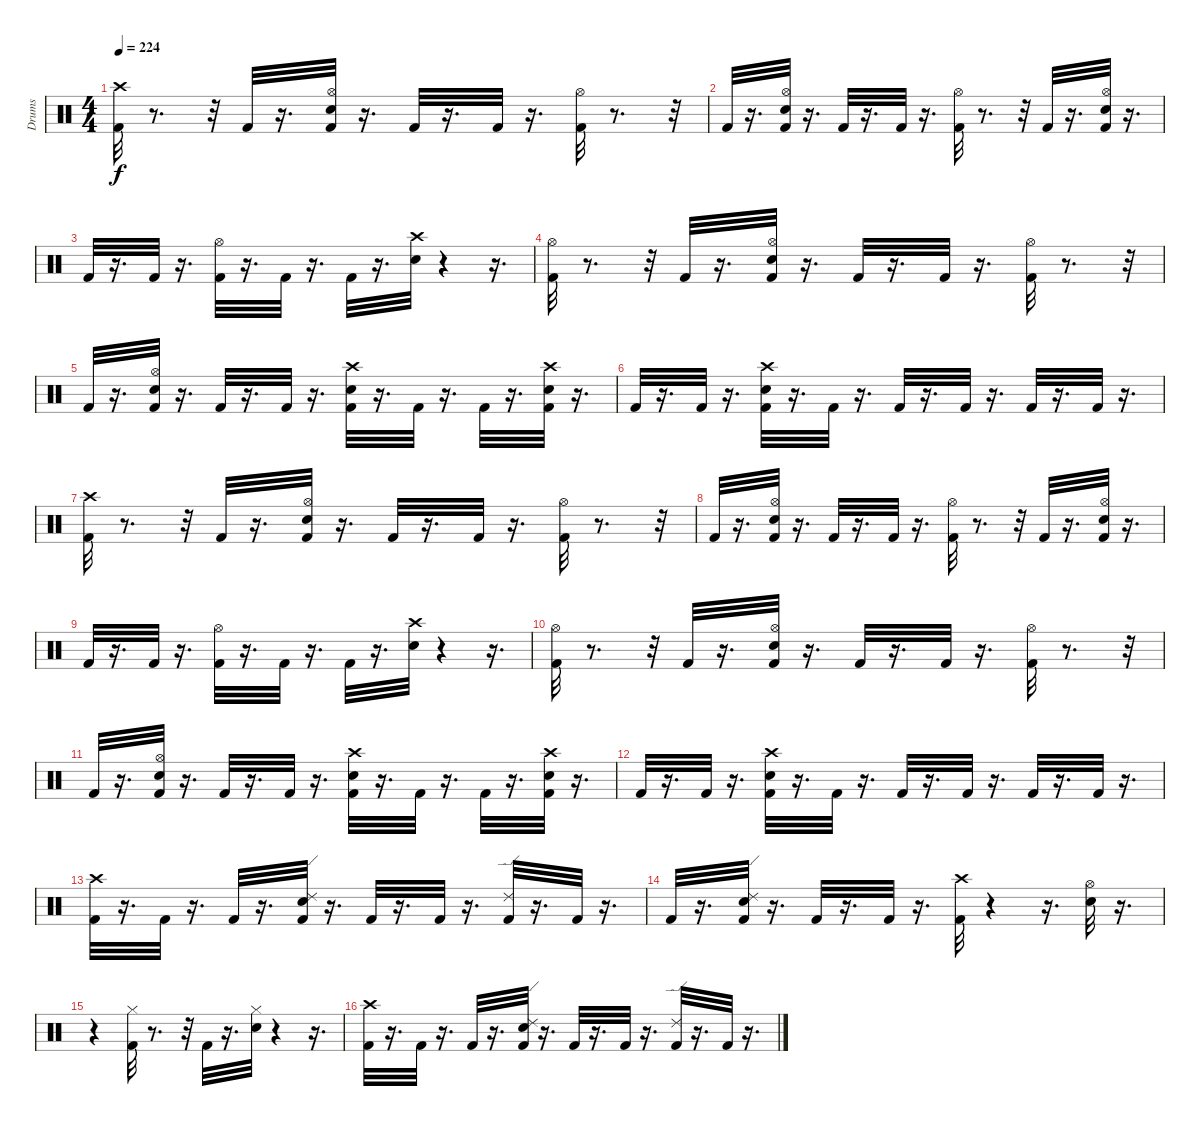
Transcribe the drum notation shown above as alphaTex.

\track ("Drums" "Drums") {instrument percussion}
\staff {score}
\articulation defaults
\ts (4 4)
\tempo 224
\clef neutral
\ks c
("Crash high (hit)" "Kick (hit) 2").32{dy f} r.8{d} r.32 "Kick (hit) 2".32 r.16{d} ("Kick (hit) 2" "Hi-Hat (open)" "Snare (hit) 2").32 r.16{d} "Kick (hit) 2".32 r.16{d} "Kick (hit) 2".32 r.16{d} ("Hi-Hat (open)" "Kick (hit) 2").32 r.8{d} r.32 |
"Kick (hit) 2".32 r.16{d} ("Kick (hit) 2" "Hi-Hat (open)" "Snare (hit) 2").32 r.16{d} "Kick (hit) 2".32 r.16{d} "Kick (hit) 2".32 r.16{d} ("Hi-Hat (open)" "Kick (hit) 2").32 r.8{d} r.32 "Kick (hit) 2".32 r.16{d} ("Kick (hit) 2" "Hi-Hat (open)" "Snare (hit) 2").32 r.16{d} |
"Kick (hit) 2".32 r.16{d} "Kick (hit) 2".32 r.16{d} ("Hi-Hat (open)" "Kick (hit) 2").32 r.16{d} "Kick (hit) 2".32 r.16{d} "Kick (hit) 2".32 r.16{d} ("Crash high (hit)" "Snare (hit) 2").32 r.4 r.16{d} |
("Hi-Hat (open)" "Kick (hit) 2").32 r.8{d} r.32 "Kick (hit) 2".32 r.16{d} ("Kick (hit) 2" "Hi-Hat (open)" "Snare (hit) 2").32 r.16{d} "Kick (hit) 2".32 r.16{d} "Kick (hit) 2".32 r.16{d} ("Hi-Hat (open)" "Kick (hit) 2").32 r.8{d} r.32 |
"Kick (hit) 2".32 r.16{d} ("Kick (hit) 2" "Hi-Hat (open)" "Snare (hit) 2").32 r.16{d} "Kick (hit) 2".32 r.16{d} "Kick (hit) 2".32 r.16{d} ("Kick (hit) 2" "Snare (hit) 2" "Crash high (hit)").32 r.16{d} "Kick (hit) 2".32 r.16{d} "Kick (hit) 2".32 r.16{d} ("Kick (hit) 2" "Snare (hit) 2" "Crash high (hit)").32 r.16{d} |
"Kick (hit) 2".32 r.16{d} "Kick (hit) 2".32 r.16{d} ("Kick (hit) 2" "Snare (hit) 2" "Crash high (hit)").32 r.16{d} "Kick (hit) 2".32 r.16{d} "Kick (hit) 2".32 r.16{d} "Kick (hit) 2".32 r.16{d} "Kick (hit) 2".32 r.16{d} "Kick (hit) 2".32 r.16{d} |
("Crash high (hit)" "Kick (hit) 2").32 r.8{d} r.32 "Kick (hit) 2".32 r.16{d} ("Kick (hit) 2" "Hi-Hat (open)" "Snare (hit) 2").32 r.16{d} "Kick (hit) 2".32 r.16{d} "Kick (hit) 2".32 r.16{d} ("Hi-Hat (open)" "Kick (hit) 2").32 r.8{d} r.32 |
"Kick (hit) 2".32 r.16{d} ("Kick (hit) 2" "Hi-Hat (open)" "Snare (hit) 2").32 r.16{d} "Kick (hit) 2".32 r.16{d} "Kick (hit) 2".32 r.16{d} ("Hi-Hat (open)" "Kick (hit) 2").32 r.8{d} r.32 "Kick (hit) 2".32 r.16{d} ("Kick (hit) 2" "Hi-Hat (open)" "Snare (hit) 2").32 r.16{d} |
"Kick (hit) 2".32 r.16{d} "Kick (hit) 2".32 r.16{d} ("Hi-Hat (open)" "Kick (hit) 2").32 r.16{d} "Kick (hit) 2".32 r.16{d} "Kick (hit) 2".32 r.16{d} ("Crash high (hit)" "Snare (hit) 2").32 r.4 r.16{d} |
("Hi-Hat (open)" "Kick (hit) 2").32 r.8{d} r.32 "Kick (hit) 2".32 r.16{d} ("Kick (hit) 2" "Hi-Hat (open)" "Snare (hit) 2").32 r.16{d} "Kick (hit) 2".32 r.16{d} "Kick (hit) 2".32 r.16{d} ("Hi-Hat (open)" "Kick (hit) 2").32 r.8{d} r.32 |
"Kick (hit) 2".32 r.16{d} ("Kick (hit) 2" "Hi-Hat (open)" "Snare (hit) 2").32 r.16{d} "Kick (hit) 2".32 r.16{d} "Kick (hit) 2".32 r.16{d} ("Kick (hit) 2" "Snare (hit) 2" "Crash high (hit)").32 r.16{d} "Kick (hit) 2".32 r.16{d} "Kick (hit) 2".32 r.16{d} ("Kick (hit) 2" "Snare (hit) 2" "Crash high (hit)").32 r.16{d} |
"Kick (hit) 2".32 r.16{d} "Kick (hit) 2".32 r.16{d} ("Kick (hit) 2" "Snare (hit) 2" "Crash high (hit)").32 r.16{d} "Kick (hit) 2".32 r.16{d} "Kick (hit) 2".32 r.16{d} "Kick (hit) 2".32 r.16{d} "Kick (hit) 2".32 r.16{d} "Kick (hit) 2".32 r.16{d} |
("Crash high (hit)" "Kick (hit) 2").32 r.16{d} "Kick (hit) 2".32 r.16{d} "Kick (hit) 2".32 r.16{d} ("Snare (hit) 2" "Kick (hit) 2" "Ride (edge) 2").32 r.16{d} "Kick (hit) 2".32 r.16{d} "Kick (hit) 2".32 r.16{d} ("Kick (hit) 2" "Ride (edge) 2").32 r.16{d} "Kick (hit) 2".32 r.16{d} |
"Kick (hit) 2".32 r.16{d} ("Snare (hit) 2" "Ride (edge) 2" "Kick (hit) 2").32 r.16{d} "Kick (hit) 2".32 r.16{d} "Kick (hit) 2".32 r.16{d} ("Crash high (hit)" "Kick (hit) 2").32 r.4 r.16{d} ("Snare (hit) 2" "Hi-Hat (open)").32 r.16{d} |
r.4 ("Hi-Hat (closed)" "Kick (hit) 2").32 r.8{d} r.32 "Kick (hit) 2".32 r.16{d} ("Hi-Hat (closed)" "Snare (hit) 2").32 r.4 r.16{d} |
("Kick (hit) 2" "Crash high (hit)").32 r.16{d} "Kick (hit) 2".32 r.16{d} "Kick (hit) 2".32 r.16{d} ("Snare (hit) 2" "Kick (hit) 2" "Ride (edge) 2").32 r.16{d} "Kick (hit) 2".32 r.16{d} "Kick (hit) 2".32 r.16{d} ("Kick (hit) 2" "Ride (edge) 2").32 r.16{d} "Kick (hit) 2".32 r.16{d}
